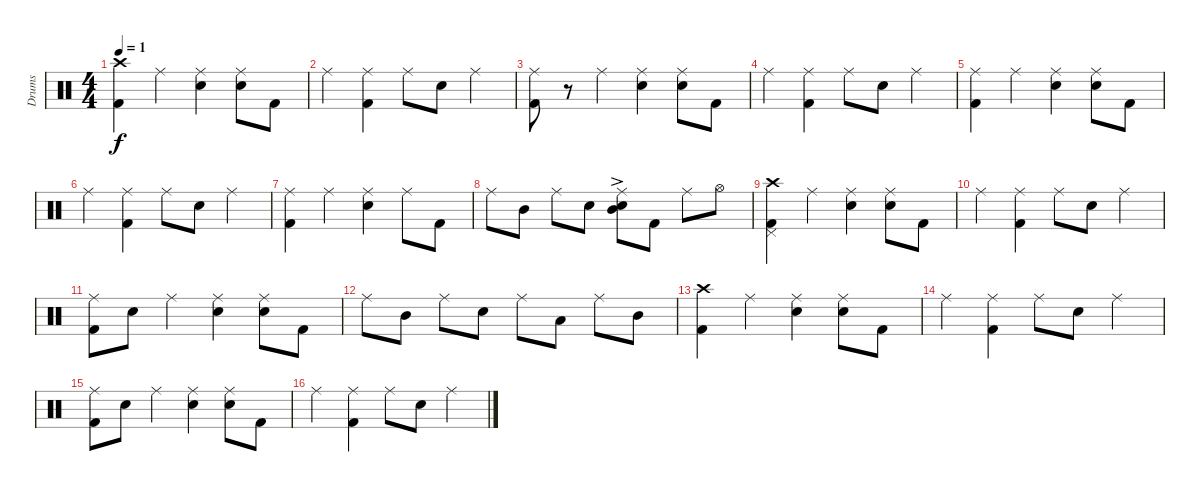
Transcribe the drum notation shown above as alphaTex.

\track ("Drums" "Drums") {instrument percussion}
\staff {score}
\articulation defaults
\ts (4 4)
\tempo 1
\clef neutral
\ks c
("Crash high (hit)" "Kick (hit) 2").4{dy f} "Ride (middle)".4 ("Ride (middle)" "Snare (hit) 2").4 ("Ride (middle)" "Snare (hit) 2").8 "Kick (hit) 2".8 |
"Ride (middle)".4 ("Ride (middle)" "Kick (hit) 2").4 "Ride (middle)".8 "Snare (hit) 2".8 "Ride (middle)".4 |
("Ride (middle)" "Kick (hit) 2").8 r.8 "Ride (middle)".4 ("Ride (middle)" "Snare (hit) 2").4 ("Ride (middle)" "Snare (hit) 2").8 "Kick (hit) 2".8 |
"Ride (middle)".4 ("Ride (middle)" "Kick (hit) 2").4 "Ride (middle)".8 "Snare (hit) 2".8 "Ride (middle)".4 |
("Ride (middle)" "Kick (hit) 2").4 "Ride (middle)".4 ("Ride (middle)" "Snare (hit) 2").4 ("Ride (middle)" "Snare (hit) 2").8 "Kick (hit) 2".8 |
"Ride (middle)".4 ("Ride (middle)" "Kick (hit) 2").4 "Ride (middle)".8 "Snare (hit) 2".8 "Ride (middle)".4 |
("Ride (middle)" "Kick (hit) 2").4 "Ride (middle)".4 ("Ride (middle)" "Snare (hit) 2").4 "Ride (middle)".8 "Kick (hit) 2".8 |
"Ride (middle)".8 "Mid Tom (hit)".8 "Ride (middle)".8 "Snare (hit) 2".8 ("Ride (middle)" "Snare (hit) 2"{ac} "Mid Tom (hit)").8 "Kick (hit) 2".8 "Ride (middle)".8 "Hi-Hat (open)".8 |
("Crash high (hit)" "Kick (hit) 2" "Pedal Hi-Hat (hit)").4 "Ride (middle)".4 ("Ride (middle)" "Snare (hit) 2").4 ("Ride (middle)" "Snare (hit) 2").8 "Kick (hit) 2".8 |
"Ride (middle)".4 ("Ride (middle)" "Kick (hit) 2").4 "Ride (middle)".8 "Snare (hit) 2".8 "Ride (middle)".4 |
("Ride (middle)" "Kick (hit) 2").8 "Snare (hit) 2".8 "Ride (middle)".4 ("Ride (middle)" "Snare (hit) 2").4 ("Ride (middle)" "Snare (hit) 2").8 "Kick (hit) 2".8 |
"Ride (middle)".8 "Mid Tom (hit)".8 "Ride (middle)".8 "Snare (hit) 2".8 "Ride (middle)".8 "Low Tom (hit)".8 "Ride (middle)".8 "Mid Tom (hit)".8 |
("Crash high (hit)" "Kick (hit) 2").4 "Ride (middle)".4 ("Ride (middle)" "Snare (hit) 2").4 ("Ride (middle)" "Snare (hit) 2").8 "Kick (hit) 2".8 |
"Ride (middle)".4 ("Ride (middle)" "Kick (hit) 2").4 "Ride (middle)".8 "Snare (hit) 2".8 "Ride (middle)".4 |
("Ride (middle)" "Kick (hit) 2").8 "Snare (hit) 2".8 "Ride (middle)".4 ("Ride (middle)" "Snare (hit) 2").4 ("Ride (middle)" "Snare (hit) 2").8 "Kick (hit) 2".8 |
"Ride (middle)".4 ("Ride (middle)" "Kick (hit) 2").4 "Ride (middle)".8 "Snare (hit) 2".8 "Ride (middle)".4
